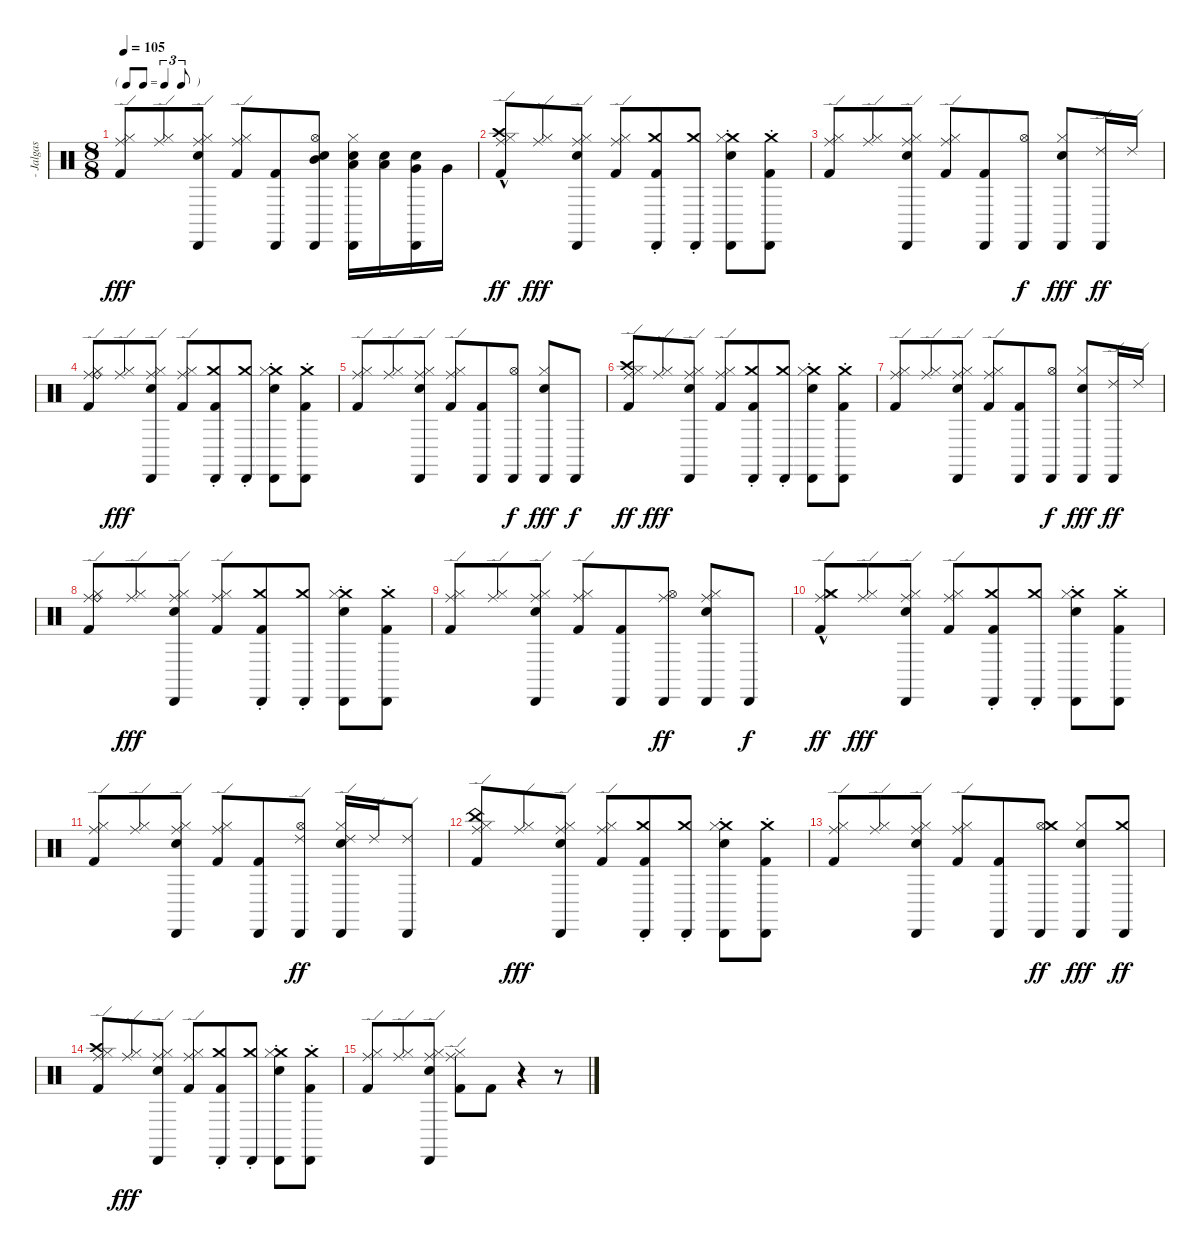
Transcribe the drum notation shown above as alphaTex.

\track (" - Jalgas -" " - Jalgas ") {instrument percussion}
\staff {score}
\articulation defaults
\ts (8 8)
\tf triplet8th
\tempo 105
\clef neutral
\ks c
("Ride (edge)" "Kick (hit) 2" "Hi-Hat (closed)").8{dy fff} ("Ride (edge)" "Hi-Hat (closed)").8 ("Ride (edge)" "Electric Snare (hit)" "Hi-Hat (closed)" "Cabasa (hit)").8 ("Ride (edge)" "Kick (hit) 2" "Hi-Hat (closed)").8 ("Kick (hit) 2" "Cabasa (hit)").8 ("Electric Snare (hit)" "Hi-Hat (open)" "Cabasa (hit)" "Mid Tom (hit)").8 ("Electric Snare (hit)" "Hi-Hat (closed)" "Cabasa (hit)" "Low Tom (hit)").16 ("Electric Snare (hit)" "Low Tom (hit)").16 ("Electric Snare (hit)" "Cabasa (hit)" "Very Low Tom (hit)").16 "Very Low Tom (hit)".16 |
("Ride (edge)" "Kick (hit) 2" "Hi-Hat (closed)" "Crash high (hit)"{hac}).8{dy ff} ("Ride (edge)" "Hi-Hat (closed)").8{dy fff} ("Ride (edge)" "Electric Snare (hit)" "Hi-Hat (closed)" "Cabasa (hit)").8 ("Ride (edge)" "Kick (hit) 2" "Hi-Hat (closed)").8 ("Crash medium (choke)" "Kick (hit) 2" "Cabasa (hit)").8 ("Crash medium (choke)" "Cabasa (hit)").8 ("Crash medium (choke)" "Electric Snare (hit)" "Hi-Hat (closed)" "Cabasa (hit)").8 ("Crash medium (choke)" "Kick (hit) 2" "Cabasa (hit)").8 |
("Ride (edge)" "Kick (hit) 2" "Hi-Hat (closed)").8 ("Ride (edge)" "Hi-Hat (closed)").8 ("Ride (edge)" "Electric Snare (hit)" "Hi-Hat (closed)" "Cabasa (hit)").8 ("Ride (edge)" "Kick (hit) 2" "Hi-Hat (closed)").8 ("Kick (hit) 2" "Cabasa (hit)").8 ("Hi-Hat (open)" "Cabasa (hit)").8{dy f} ("Electric Snare (hit)" "Hi-Hat (closed)" "Cabasa (hit)").8{dy fff} ("Cabasa (hit)" "Ride (edge) 2").16{dy ff} "Ride (edge) 2".16 |
("Ride (edge)" "Kick (hit) 2" "Hi-Hat (closed)" "Ride (bell)").8 ("Ride (edge)" "Hi-Hat (closed)").8{dy fff} ("Ride (edge)" "Electric Snare (hit)" "Hi-Hat (closed)" "Cabasa (hit)").8 ("Ride (edge)" "Kick (hit) 2" "Hi-Hat (closed)").8 ("Crash medium (choke)" "Kick (hit) 2" "Cabasa (hit)").8 ("Crash medium (choke)" "Cabasa (hit)").8 ("Crash medium (choke)" "Electric Snare (hit)" "Hi-Hat (closed)" "Cabasa (hit)").8 ("Crash medium (choke)" "Kick (hit) 2" "Cabasa (hit)").8 |
("Ride (edge)" "Kick (hit) 2" "Hi-Hat (closed)").8 ("Ride (edge)" "Hi-Hat (closed)").8 ("Ride (edge)" "Electric Snare (hit)" "Hi-Hat (closed)" "Cabasa (hit)").8 ("Ride (edge)" "Kick (hit) 2" "Hi-Hat (closed)").8 ("Kick (hit) 2" "Cabasa (hit)").8 ("Hi-Hat (open)" "Cabasa (hit)").8{dy f} ("Electric Snare (hit)" "Hi-Hat (closed)" "Cabasa (hit)").8{dy fff} "Cabasa (hit)".8{dy f} |
("Ride (edge)" "Kick (hit) 2" "Hi-Hat (closed)" "Crash high (hit)").8{dy ff} ("Ride (edge)" "Hi-Hat (closed)").8{dy fff} ("Ride (edge)" "Electric Snare (hit)" "Hi-Hat (closed)" "Cabasa (hit)").8 ("Ride (edge)" "Kick (hit) 2" "Hi-Hat (closed)").8{volume 16} ("Crash medium (choke)" "Kick (hit) 2" "Cabasa (hit)").8 ("Crash medium (choke)" "Cabasa (hit)").8 ("Crash medium (choke)" "Electric Snare (hit)" "Hi-Hat (closed)" "Cabasa (hit)").8 ("Crash medium (choke)" "Kick (hit) 2" "Cabasa (hit)").8{volume 16} |
("Ride (edge)" "Kick (hit) 2" "Hi-Hat (closed)").8{volume 11} ("Ride (edge)" "Hi-Hat (closed)").8{volume 15} ("Ride (edge)" "Electric Snare (hit)" "Hi-Hat (closed)" "Cabasa (hit)").8{volume 15} ("Ride (edge)" "Kick (hit) 2" "Hi-Hat (closed)").8{volume 15} ("Kick (hit) 2" "Cabasa (hit)").8{volume 10} ("Hi-Hat (open)" "Cabasa (hit)").8{dy f volume 15} ("Electric Snare (hit)" "Hi-Hat (closed)" "Cabasa (hit)").8{dy fff volume 14} ("Cabasa (hit)" "Ride (edge) 2").16{dy ff volume 14} "Ride (edge) 2".16 |
("Ride (edge)" "Kick (hit) 2" "Hi-Hat (closed)" "Ride (bell)").8{volume 14} ("Ride (edge)" "Hi-Hat (closed)").8{dy fff volume 10} ("Ride (edge)" "Electric Snare (hit)" "Hi-Hat (closed)" "Cabasa (hit)").8{volume 14} ("Ride (edge)" "Kick (hit) 2" "Hi-Hat (closed)").8{volume 13} ("Crash medium (choke)" "Kick (hit) 2" "Cabasa (hit)").8{volume 13} ("Crash medium (choke)" "Cabasa (hit)").8{volume 13} ("Crash medium (choke)" "Electric Snare (hit)" "Hi-Hat (closed)" "Cabasa (hit)").8{volume 13} ("Crash medium (choke)" "Kick (hit) 2" "Cabasa (hit)").8{volume 9} |
("Ride (edge)" "Kick (hit) 2" "Hi-Hat (closed)").8{volume 12} ("Ride (edge)" "Hi-Hat (closed)").8{volume 8} ("Ride (edge)" "Electric Snare (hit)" "Hi-Hat (closed)" "Cabasa (hit)").8 ("Ride (edge)" "Kick (hit) 2" "Hi-Hat (closed)").8{volume 12} ("Kick (hit) 2" "Cabasa (hit)").8 ("Hi-Hat (open)" "Cabasa (hit)" "Ride (middle)").8{dy ff volume 12} ("Electric Snare (hit)" "Hi-Hat (closed)" "Cabasa (hit)" "Ride (middle)").8{volume 12} "Cabasa (hit)".8{dy f volume 11} |
("Ride (edge)" "Kick (hit) 2" "Hi-Hat (closed)" "Crash medium (hit)"{hac}).8{dy ff volume 11} ("Ride (edge)" "Hi-Hat (closed)").8{dy fff volume 11} ("Ride (edge)" "Electric Snare (hit)" "Hi-Hat (closed)" "Cabasa (hit)").8{volume 10} ("Ride (edge)" "Kick (hit) 2" "Hi-Hat (closed)").8 ("Crash medium (choke)" "Kick (hit) 2" "Cabasa (hit)").8 ("Crash medium (choke)" "Cabasa (hit)").8{volume 10} ("Crash medium (choke)" "Electric Snare (hit)" "Hi-Hat (closed)" "Cabasa (hit)").8{volume 10} ("Crash medium (choke)" "Kick (hit) 2" "Cabasa (hit)").8{volume 10} |
("Ride (edge)" "Kick (hit) 2" "Hi-Hat (closed)").8 ("Ride (edge)" "Hi-Hat (closed)").8{volume 9} ("Ride (edge)" "Electric Snare (hit)" "Hi-Hat (closed)" "Cabasa (hit)").8{volume 9} ("Ride (edge)" "Kick (hit) 2" "Hi-Hat (closed)").8{volume 9} ("Kick (hit) 2" "Cabasa (hit)").8{volume 9} ("Hi-Hat (open)" "Cabasa (hit)" "Ride (edge) 2").8{dy ff volume 9} ("Electric Snare (hit)" "Hi-Hat (closed)" "Cabasa (hit)" "Ride (edge) 2").16{volume 6} "Ride (edge) 2".16{volume 8} ("Cabasa (hit)" "Ride (edge) 2").8{volume 8} |
("Ride (edge)" "Kick (hit) 2" "Hi-Hat (closed)" "China (hit)").8{volume 8} ("Ride (edge)" "Hi-Hat (closed)").8{dy fff volume 8} ("Ride (edge)" "Electric Snare (hit)" "Hi-Hat (closed)" "Cabasa (hit)").8{volume 8} ("Ride (edge)" "Kick (hit) 2" "Hi-Hat (closed)").8{volume 7} ("Crash medium (choke)" "Kick (hit) 2" "Cabasa (hit)").8{volume 7} ("Crash medium (choke)" "Cabasa (hit)").8{volume 7} ("Crash medium (choke)" "Electric Snare (hit)" "Hi-Hat (closed)" "Cabasa (hit)").8{volume 5} ("Crash medium (choke)" "Kick (hit) 2" "Cabasa (hit)").8{volume 6} |
("Ride (edge)" "Kick (hit) 2" "Hi-Hat (closed)").8{volume 6} ("Ride (edge)" "Hi-Hat (closed)").8{volume 6} ("Ride (edge)" "Electric Snare (hit)" "Hi-Hat (closed)" "Cabasa (hit)").8{volume 4} ("Ride (edge)" "Kick (hit) 2" "Hi-Hat (closed)").8{volume 5} ("Kick (hit) 2" "Cabasa (hit)").8{volume 5} ("Hi-Hat (open)" "Cabasa (hit)" "Crash medium (hit)").8{dy ff volume 5} ("Electric Snare (hit)" "Hi-Hat (closed)" "Cabasa (hit)").8{dy fff volume 5} ("Cabasa (hit)" "Crash medium (hit)").8{dy ff volume 5} |
("Ride (edge)" "Kick (hit) 2" "Hi-Hat (closed)" "Crash high (hit)").8{volume 4} ("Ride (edge)" "Hi-Hat (closed)").8{dy fff volume 4} ("Ride (edge)" "Electric Snare (hit)" "Hi-Hat (closed)" "Cabasa (hit)").8{volume 4} ("Ride (edge)" "Kick (hit) 2" "Hi-Hat (closed)").8{volume 2} ("Crash medium (choke)" "Kick (hit) 2" "Cabasa (hit)").8{volume 2} ("Crash medium (choke)" "Cabasa (hit)").8 ("Crash medium (choke)" "Electric Snare (hit)" "Hi-Hat (closed)" "Cabasa (hit)").8{volume 3} ("Crash medium (choke)" "Kick (hit) 2" "Cabasa (hit)").8{volume 2} |
("Ride (edge)" "Kick (hit) 2" "Hi-Hat (closed)").8{volume 2} ("Ride (edge)" "Hi-Hat (closed)").8{volume 2} ("Ride (edge)" "Electric Snare (hit)" "Hi-Hat (closed)" "Cabasa (hit)").8{volume 1} ("Ride (edge)" "Kick (hit) 2" "Hi-Hat (closed)").8{volume 1} "Kick (hit) 2".8{volume 0} r.4 r.8
